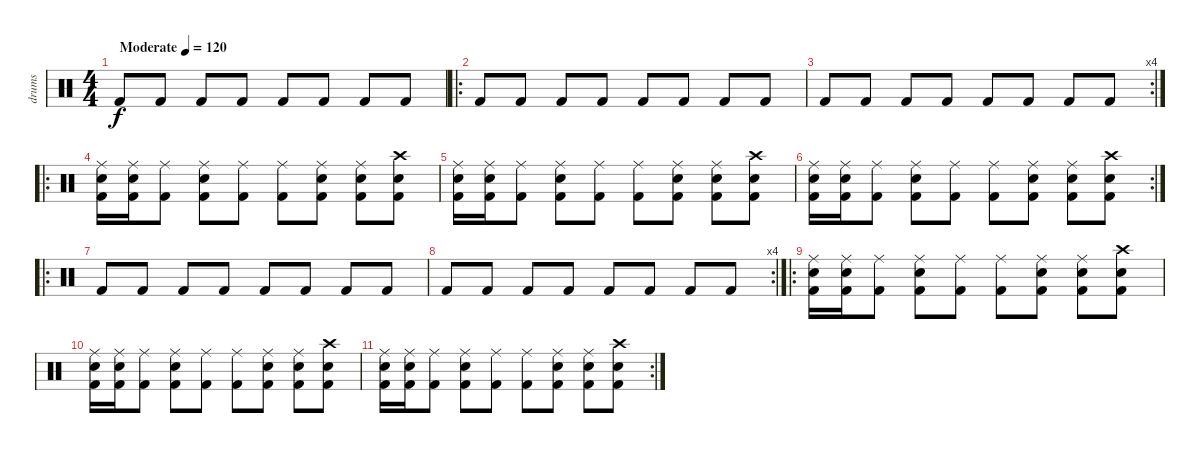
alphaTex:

\track ("drums" "drums") {instrument percussion}
\staff {score}
\articulation defaults
\ts (4 4)
\tempo (120 "Moderate")
\clef neutral
\ks c "Kick (hit) 2".8{dy f} "Kick (hit) 2".8 "Kick (hit) 2".8 "Kick (hit) 2".8 "Kick (hit) 2".8 "Kick (hit) 2".8 "Kick (hit) 2".8 "Kick (hit) 2".8
|
\ro "Kick (hit) 2".8 "Kick (hit) 2".8 "Kick (hit) 2".8 "Kick (hit) 2".8 "Kick (hit) 2".8 "Kick (hit) 2".8 "Kick (hit) 2".8 "Kick (hit) 2".8
|
\rc 4 "Kick (hit) 2".8 "Kick (hit) 2".8 "Kick (hit) 2".8 "Kick (hit) 2".8 "Kick (hit) 2".8 "Kick (hit) 2".8 "Kick (hit) 2".8 "Kick (hit) 2".8
|
\ro
("Ride (middle)" "Snare (hit) 2" "Kick (hit) 2").16 ("Ride (middle)" "Snare (hit) 2" "Kick (hit) 2").16 ("Ride (middle)" "Kick (hit) 2").8 ("Ride (middle)" "Snare (hit) 2" "Kick (hit) 2").8 ("Ride (middle)" "Kick (hit) 2").8 ("Ride (middle)" "Kick (hit) 2").8 ("Ride (middle)" "Snare (hit) 2" "Kick (hit) 2").8 ("Ride (middle)" "Snare (hit) 2" "Kick (hit) 2").8 ("Crash high (hit)" "Snare (hit) 2" "Kick (hit) 2").8 |
("Ride (middle)" "Snare (hit) 2" "Kick (hit) 2").16 ("Ride (middle)" "Snare (hit) 2" "Kick (hit) 2").16 ("Ride (middle)" "Kick (hit) 2").8 ("Ride (middle)" "Snare (hit) 2" "Kick (hit) 2").8 ("Ride (middle)" "Kick (hit) 2").8 ("Ride (middle)" "Kick (hit) 2").8 ("Ride (middle)" "Snare (hit) 2" "Kick (hit) 2").8 ("Ride (middle)" "Snare (hit) 2" "Kick (hit) 2").8 ("Crash high (hit)" "Snare (hit) 2" "Kick (hit) 2").8 |
\rc 2
("Ride (middle)" "Snare (hit) 2" "Kick (hit) 2").16 ("Ride (middle)" "Snare (hit) 2" "Kick (hit) 2").16 ("Ride (middle)" "Kick (hit) 2").8 ("Ride (middle)" "Snare (hit) 2" "Kick (hit) 2").8 ("Ride (middle)" "Kick (hit) 2").8 ("Ride (middle)" "Kick (hit) 2").8 ("Ride (middle)" "Snare (hit) 2" "Kick (hit) 2").8 ("Ride (middle)" "Snare (hit) 2" "Kick (hit) 2").8 ("Crash high (hit)" "Snare (hit) 2" "Kick (hit) 2").8 |
\ro "Kick (hit) 2".8 "Kick (hit) 2".8 "Kick (hit) 2".8 "Kick (hit) 2".8 "Kick (hit) 2".8 "Kick (hit) 2".8 "Kick (hit) 2".8 "Kick (hit) 2".8
|
\rc 4 "Kick (hit) 2".8 "Kick (hit) 2".8 "Kick (hit) 2".8 "Kick (hit) 2".8 "Kick (hit) 2".8 "Kick (hit) 2".8 "Kick (hit) 2".8 "Kick (hit) 2".8
|
\ro
("Ride (middle)" "Snare (hit) 2" "Kick (hit) 2").16 ("Ride (middle)" "Snare (hit) 2" "Kick (hit) 2").16 ("Ride (middle)" "Kick (hit) 2").8 ("Ride (middle)" "Snare (hit) 2" "Kick (hit) 2").8 ("Ride (middle)" "Kick (hit) 2").8 ("Ride (middle)" "Kick (hit) 2").8 ("Ride (middle)" "Snare (hit) 2" "Kick (hit) 2").8 ("Ride (middle)" "Snare (hit) 2" "Kick (hit) 2").8 ("Crash high (hit)" "Snare (hit) 2" "Kick (hit) 2").8 |
("Ride (middle)" "Snare (hit) 2" "Kick (hit) 2").16 ("Ride (middle)" "Snare (hit) 2" "Kick (hit) 2").16 ("Ride (middle)" "Kick (hit) 2").8 ("Ride (middle)" "Snare (hit) 2" "Kick (hit) 2").8 ("Ride (middle)" "Kick (hit) 2").8 ("Ride (middle)" "Kick (hit) 2").8 ("Ride (middle)" "Snare (hit) 2" "Kick (hit) 2").8 ("Ride (middle)" "Snare (hit) 2" "Kick (hit) 2").8 ("Crash high (hit)" "Snare (hit) 2" "Kick (hit) 2").8 |
\rc 2
("Ride (middle)" "Snare (hit) 2" "Kick (hit) 2").16 ("Ride (middle)" "Snare (hit) 2" "Kick (hit) 2").16 ("Ride (middle)" "Kick (hit) 2").8 ("Ride (middle)" "Snare (hit) 2" "Kick (hit) 2").8 ("Ride (middle)" "Kick (hit) 2").8 ("Ride (middle)" "Kick (hit) 2").8 ("Ride (middle)" "Snare (hit) 2" "Kick (hit) 2").8 ("Ride (middle)" "Snare (hit) 2" "Kick (hit) 2").8 ("Crash high (hit)" "Snare (hit) 2" "Kick (hit) 2").8
